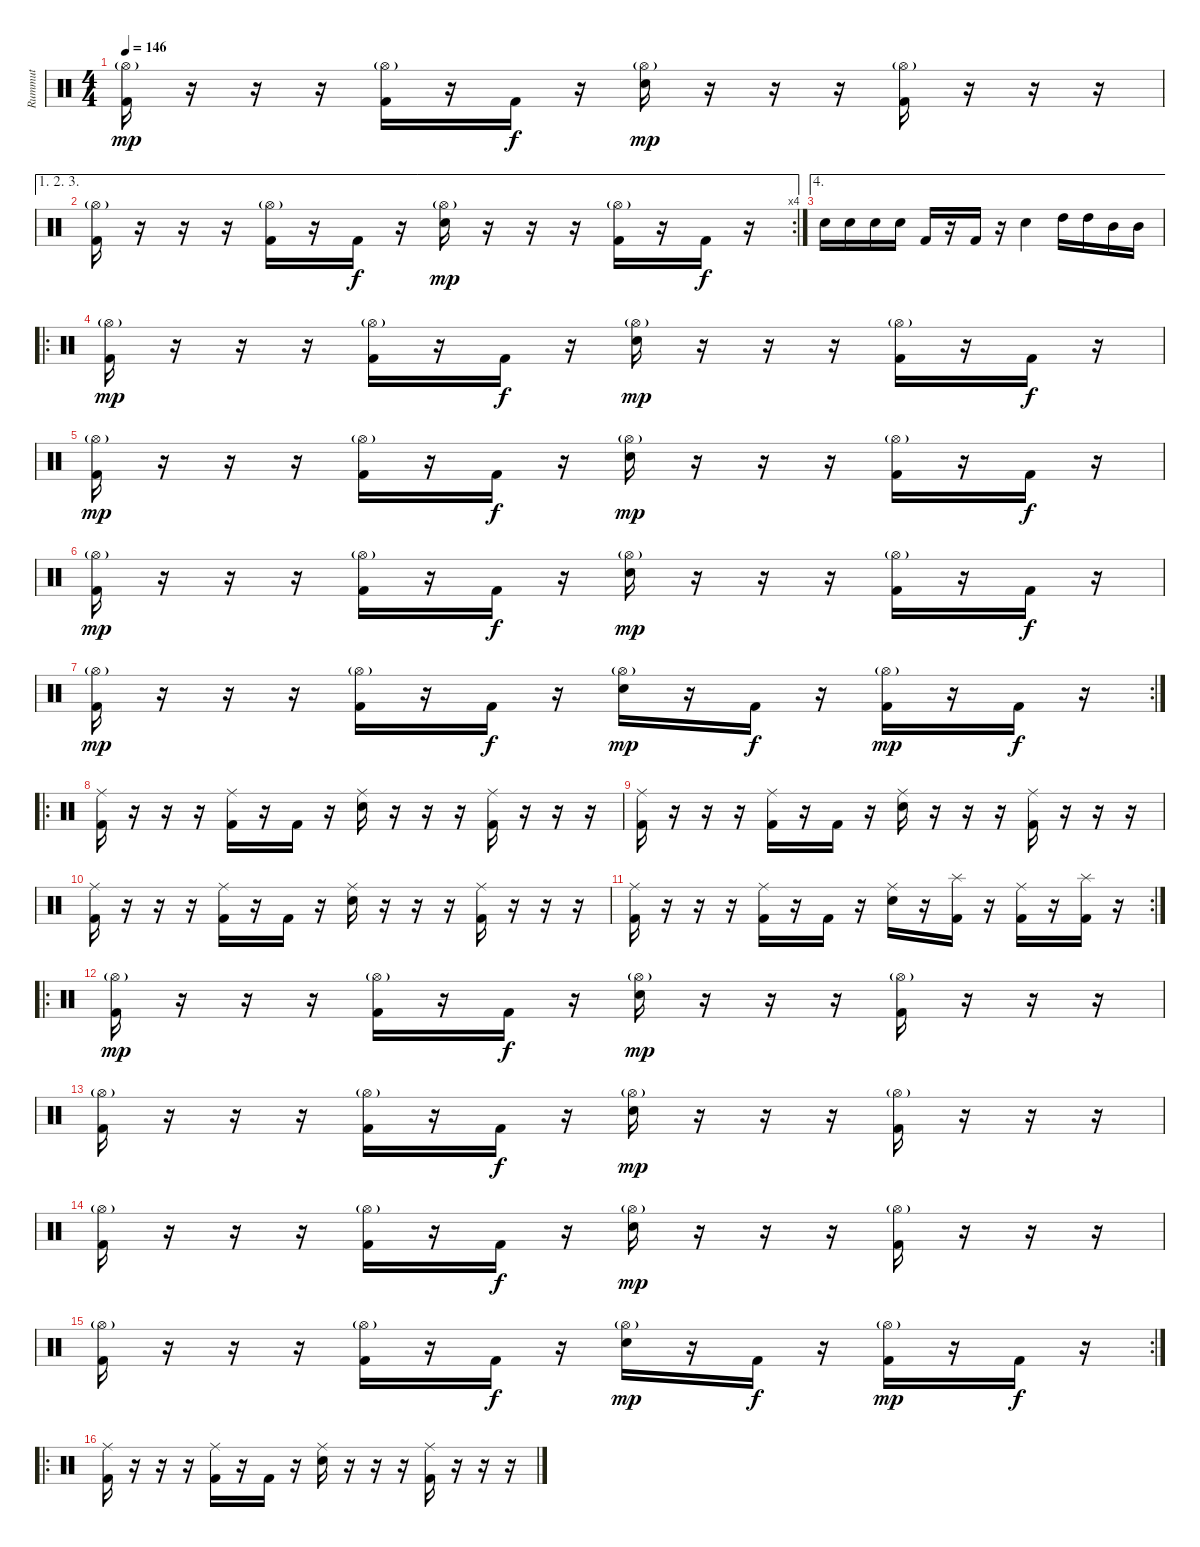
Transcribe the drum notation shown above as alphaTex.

\track ("Rummut" "Rummut") {instrument percussion}
\staff {score}
\articulation defaults
\ts (4 4)
\tempo 146
\clef neutral
\ks c
("Hi-Hat (open)"{g} "Kick (hit) 2").16{dy mp} r.16 r.16 r.16 ("Hi-Hat (open)"{g} "Kick (hit) 2").16 r.16 "Kick (hit) 2".16{dy f} r.16 ("Hi-Hat (open)"{g} "Electric Snare (hit)").16{dy mp} r.16 r.16 r.16 ("Hi-Hat (open)"{g} "Kick (hit) 2").16 r.16 r.16 r.16 |
\ae (1 2 3)
\rc 4
("Hi-Hat (open)"{g} "Kick (hit) 2").16 r.16 r.16 r.16 ("Hi-Hat (open)"{g} "Kick (hit) 2").16 r.16 "Kick (hit) 2".16{dy f} r.16 ("Hi-Hat (open)"{g} "Electric Snare (hit)").16{dy mp} r.16 r.16 r.16 ("Hi-Hat (open)"{g} "Kick (hit) 2").16 r.16 "Kick (hit) 2".16{dy f} r.16 |
\ae 4 "Electric Snare (hit)".16 "Electric Snare (hit)".16 "Electric Snare (hit)".16 "Electric Snare (hit)".16 "Kick (hit) 2".16
r.16 "Kick (hit) 2".16 r.16 "Electric Snare (hit)".4 "High Tom (hit)".16 "High Tom (hit)".16 "Mid Tom (hit)".16 "Mid Tom (hit)".16 |
\ro
\section ("" "")
("Hi-Hat (open)"{g} "Kick (hit) 2").16{dy mp} r.16 r.16 r.16 ("Hi-Hat (open)"{g} "Kick (hit) 2").16 r.16 "Kick (hit) 2".16{dy f} r.16 ("Hi-Hat (open)"{g} "Electric Snare (hit)").16{dy mp} r.16 r.16 r.16 ("Hi-Hat (open)"{g} "Kick (hit) 2").16 r.16 "Kick (hit) 2".16{dy f} r.16 |
("Hi-Hat (open)"{g} "Kick (hit) 2").16{dy mp} r.16 r.16 r.16 ("Hi-Hat (open)"{g} "Kick (hit) 2").16 r.16 "Kick (hit) 2".16{dy f} r.16 ("Hi-Hat (open)"{g} "Electric Snare (hit)").16{dy mp} r.16 r.16 r.16 ("Hi-Hat (open)"{g} "Kick (hit) 2").16 r.16 "Kick (hit) 2".16{dy f} r.16 |
("Hi-Hat (open)"{g} "Kick (hit) 2").16{dy mp} r.16 r.16 r.16 ("Hi-Hat (open)"{g} "Kick (hit) 2").16 r.16 "Kick (hit) 2".16{dy f} r.16 ("Hi-Hat (open)"{g} "Electric Snare (hit)").16{dy mp} r.16 r.16 r.16 ("Hi-Hat (open)"{g} "Kick (hit) 2").16 r.16 "Kick (hit) 2".16{dy f} r.16 |
\rc 2
("Hi-Hat (open)"{g} "Kick (hit) 2").16{dy mp} r.16 r.16 r.16 ("Hi-Hat (open)"{g} "Kick (hit) 2").16 r.16 "Kick (hit) 2".16{dy f} r.16 ("Hi-Hat (open)"{g} "Electric Snare (hit)").16{dy mp} r.16 "Kick (hit) 2".16{dy f} r.16 ("Hi-Hat (open)"{g} "Kick (hit) 2").16{dy mp} r.16 "Kick (hit) 2".16{dy f} r.16 |
\ro
\section ("" "")
("Ride (middle)" "Kick (hit) 2").16 r.16 r.16 r.16 ("Ride (middle)" "Kick (hit) 2").16 r.16 "Kick (hit) 2".16 r.16 ("Ride (middle)" "Electric Snare (hit)").16 r.16 r.16 r.16 ("Ride (middle)" "Kick (hit) 2").16 r.16 r.16 r.16 |
("Ride (middle)" "Kick (hit) 2").16 r.16 r.16 r.16 ("Ride (middle)" "Kick (hit) 2").16 r.16 "Kick (hit) 2".16 r.16 ("Ride (middle)" "Electric Snare (hit)").16 r.16 r.16 r.16 ("Ride (middle)" "Kick (hit) 2").16 r.16 r.16 r.16 |
("Ride (middle)" "Kick (hit) 2").16 r.16 r.16 r.16 ("Ride (middle)" "Kick (hit) 2").16 r.16 "Kick (hit) 2".16 r.16 ("Ride (middle)" "Electric Snare (hit)").16 r.16 r.16 r.16 ("Ride (middle)" "Kick (hit) 2").16 r.16 r.16 r.16 |
\rc 2
("Ride (middle)" "Kick (hit) 2").16 r.16 r.16 r.16 ("Ride (middle)" "Kick (hit) 2").16 r.16 "Kick (hit) 2".16 r.16 ("Ride (middle)" "Electric Snare (hit)").16 r.16 ("Splash (hit)" "Kick (hit) 2").16 r.16 ("Ride (middle)" "Kick (hit) 2").16 r.16 ("Splash (hit)" "Kick (hit) 2").16 r.16 |
\ro
\section ("" "")
("Hi-Hat (open)"{g} "Kick (hit) 2").16{dy mp} r.16 r.16 r.16 ("Hi-Hat (open)"{g} "Kick (hit) 2").16 r.16 "Kick (hit) 2".16{dy f} r.16 ("Hi-Hat (open)"{g} "Electric Snare (hit)").16{dy mp} r.16 r.16 r.16 ("Hi-Hat (open)"{g} "Kick (hit) 2").16 r.16 r.16 r.16 |
("Hi-Hat (open)"{g} "Kick (hit) 2").16 r.16 r.16 r.16 ("Hi-Hat (open)"{g} "Kick (hit) 2").16 r.16 "Kick (hit) 2".16{dy f} r.16 ("Hi-Hat (open)"{g} "Electric Snare (hit)").16{dy mp} r.16 r.16 r.16 ("Hi-Hat (open)"{g} "Kick (hit) 2").16 r.16 r.16 r.16 |
("Hi-Hat (open)"{g} "Kick (hit) 2").16 r.16 r.16 r.16 ("Hi-Hat (open)"{g} "Kick (hit) 2").16 r.16 "Kick (hit) 2".16{dy f} r.16 ("Hi-Hat (open)"{g} "Electric Snare (hit)").16{dy mp} r.16 r.16 r.16 ("Hi-Hat (open)"{g} "Kick (hit) 2").16 r.16 r.16 r.16 |
\rc 2
("Hi-Hat (open)"{g} "Kick (hit) 2").16 r.16 r.16 r.16 ("Hi-Hat (open)"{g} "Kick (hit) 2").16 r.16 "Kick (hit) 2".16{dy f} r.16 ("Hi-Hat (open)"{g} "Electric Snare (hit)").16{dy mp} r.16 "Kick (hit) 2".16{dy f} r.16 ("Hi-Hat (open)"{g} "Kick (hit) 2").16{dy mp} r.16 "Kick (hit) 2".16{dy f} r.16 |
\ro
\section ("" "")
("Ride (middle)" "Kick (hit) 2").16 r.16 r.16 r.16 ("Ride (middle)" "Kick (hit) 2").16 r.16 "Kick (hit) 2".16 r.16 ("Ride (middle)" "Electric Snare (hit)").16 r.16 r.16 r.16 ("Ride (middle)" "Kick (hit) 2").16 r.16 r.16 r.16
